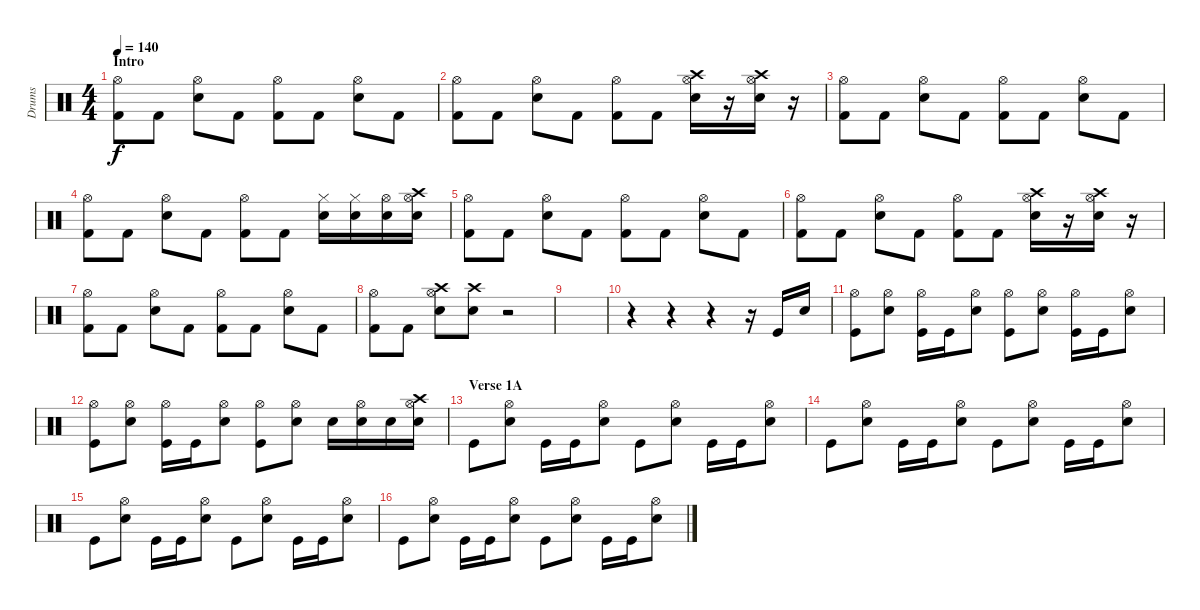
\track ("Drums" "Drums") {instrument percussion}
\staff {score}
\articulation defaults
\ts (4 4)
\section ("" "Intro")
\tempo 140
\clef neutral
\ks c
("Kick (hit) 2" "Hi-Hat (open)").8{dy f} "Kick (hit) 2".8 ("Electric Snare (hit)" "Hi-Hat (open)").8 "Kick (hit) 2".8 ("Kick (hit) 2" "Hi-Hat (open)").8 "Kick (hit) 2".8 ("Electric Snare (hit)" "Hi-Hat (open)").8 "Kick (hit) 2".8 |
("Kick (hit) 2" "Hi-Hat (open)").8 "Kick (hit) 2".8 ("Electric Snare (hit)" "Hi-Hat (open)").8 "Kick (hit) 2".8 ("Kick (hit) 2" "Hi-Hat (open)").8 "Kick (hit) 2".8 ("Crash high (hit)" "Electric Snare (hit)" "Hi-Hat (open)").16 r.16 ("Crash high (hit)" "Electric Snare (hit)" "Hi-Hat (open)").16 r.16 |
("Kick (hit) 2" "Hi-Hat (open)").8 "Kick (hit) 2".8 ("Electric Snare (hit)" "Hi-Hat (open)").8 "Kick (hit) 2".8 ("Kick (hit) 2" "Hi-Hat (open)").8 "Kick (hit) 2".8 ("Electric Snare (hit)" "Hi-Hat (open)").8 "Kick (hit) 2".8 |
("Kick (hit) 2" "Hi-Hat (open)").8 "Kick (hit) 2".8 ("Electric Snare (hit)" "Hi-Hat (open)").8 "Kick (hit) 2".8 ("Kick (hit) 2" "Hi-Hat (open)").8 "Kick (hit) 2".8 ("Electric Snare (hit)" "Hi-Hat (closed)").16 ("Electric Snare (hit)" "Hi-Hat (closed)").16 ("Electric Snare (hit)" "Hi-Hat (open)").16 ("Crash high (hit)" "Electric Snare (hit)" "Hi-Hat (open)").16 |
("Kick (hit) 2" "Hi-Hat (open)").8 "Kick (hit) 2".8 ("Electric Snare (hit)" "Hi-Hat (open)").8 "Kick (hit) 2".8 ("Kick (hit) 2" "Hi-Hat (open)").8 "Kick (hit) 2".8 ("Electric Snare (hit)" "Hi-Hat (open)").8 "Kick (hit) 2".8 |
("Kick (hit) 2" "Hi-Hat (open)").8 "Kick (hit) 2".8 ("Electric Snare (hit)" "Hi-Hat (open)").8 "Kick (hit) 2".8 ("Kick (hit) 2" "Hi-Hat (open)").8 "Kick (hit) 2".8 ("Crash high (hit)" "Electric Snare (hit)" "Hi-Hat (open)").16 r.16 ("Crash high (hit)" "Electric Snare (hit)" "Hi-Hat (open)").16 r.16 |
("Kick (hit) 2" "Hi-Hat (open)").8 "Kick (hit) 2".8 ("Electric Snare (hit)" "Hi-Hat (open)").8 "Kick (hit) 2".8 ("Kick (hit) 2" "Hi-Hat (open)").8 "Kick (hit) 2".8 ("Electric Snare (hit)" "Hi-Hat (open)").8 "Kick (hit) 2".8 |
("Kick (hit) 2" "Hi-Hat (open)").8 "Kick (hit) 2".8 ("Crash high (hit)" "Electric Snare (hit)" "Hi-Hat (open)").8 ("Crash high (hit)" "Electric Snare (hit)").8 r.2 |
|
r.4 r.4 r.4 r.16 "Kick (hit)".16 "Electric Snare (hit)".16 |
("Kick (hit)" "Hi-Hat (open)").8 ("Snare (hit) 2" "Hi-Hat (open)").8 ("Kick (hit)" "Hi-Hat (open)").16 "Kick (hit)".16 ("Snare (hit) 2" "Hi-Hat (open)").8 ("Kick (hit)" "Hi-Hat (open)").8 ("Snare (hit) 2" "Hi-Hat (open)").8 ("Kick (hit)" "Hi-Hat (open)").16 "Kick (hit)".16 ("Snare (hit) 2" "Hi-Hat (open)").8 |
("Kick (hit)" "Hi-Hat (open)").8 ("Snare (hit) 2" "Hi-Hat (open)").8 ("Kick (hit)" "Hi-Hat (open)").16 "Kick (hit)".16 ("Snare (hit) 2" "Hi-Hat (open)").8 ("Kick (hit)" "Hi-Hat (open)").8 ("Snare (hit) 2" "Hi-Hat (open)").8 "Electric Snare (hit)".16 ("Electric Snare (hit)" "Hi-Hat (open)").16 "Electric Snare (hit)".16 ("Crash high (hit)" "Electric Snare (hit)" "Hi-Hat (open)").16 |
\section ("" "Verse 1A")
"Kick (hit)".8 ("Snare (hit) 2" "Hi-Hat (open)").8 "Kick (hit)".16 "Kick (hit)".16 ("Snare (hit) 2" "Hi-Hat (open)").8 "Kick (hit)".8 ("Snare (hit) 2" "Hi-Hat (open)").8 "Kick (hit)".16 "Kick (hit)".16 ("Snare (hit) 2" "Hi-Hat (open)").8 |
"Kick (hit)".8 ("Snare (hit) 2" "Hi-Hat (open)").8 "Kick (hit)".16 "Kick (hit)".16 ("Snare (hit) 2" "Hi-Hat (open)").8 "Kick (hit)".8 ("Snare (hit) 2" "Hi-Hat (open)").8 "Kick (hit)".16 "Kick (hit)".16 ("Snare (hit) 2" "Hi-Hat (open)").8 |
"Kick (hit)".8 ("Snare (hit) 2" "Hi-Hat (open)").8 "Kick (hit)".16 "Kick (hit)".16 ("Snare (hit) 2" "Hi-Hat (open)").8 "Kick (hit)".8 ("Snare (hit) 2" "Hi-Hat (open)").8 "Kick (hit)".16 "Kick (hit)".16 ("Snare (hit) 2" "Hi-Hat (open)").8 |
"Kick (hit)".8 ("Snare (hit) 2" "Hi-Hat (open)").8 "Kick (hit)".16 "Kick (hit)".16 ("Snare (hit) 2" "Hi-Hat (open)").8 "Kick (hit)".8 ("Snare (hit) 2" "Hi-Hat (open)").8 "Kick (hit)".16 "Kick (hit)".16 ("Snare (hit) 2" "Hi-Hat (open)").8
